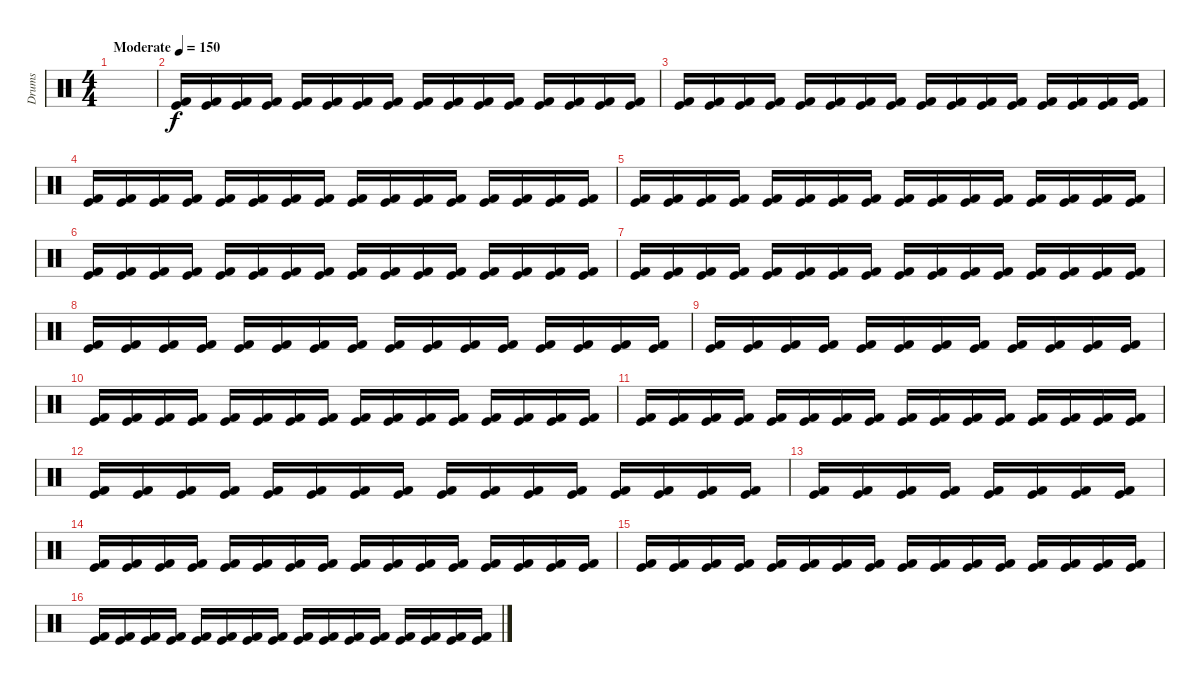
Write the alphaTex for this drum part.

\track ("Drums" "Drums") {instrument percussion}
\staff {score}
\articulation defaults
\ts (4 4)
\tempo (150 "Moderate")
\clef neutral
\ks c
|
("Kick (hit) 2" "Kick (hit)").16 ("Kick (hit) 2" "Kick (hit)").16 ("Kick (hit) 2" "Kick (hit)").16 ("Kick (hit) 2" "Kick (hit)").16 ("Kick (hit) 2" "Kick (hit)").16 ("Kick (hit) 2" "Kick (hit)").16 ("Kick (hit) 2" "Kick (hit)").16 ("Kick (hit) 2" "Kick (hit)").16 ("Kick (hit) 2" "Kick (hit)").16 ("Kick (hit) 2" "Kick (hit)").16 ("Kick (hit) 2" "Kick (hit)").16 ("Kick (hit) 2" "Kick (hit)").16 ("Kick (hit) 2" "Kick (hit)").16 ("Kick (hit) 2" "Kick (hit)").16 ("Kick (hit) 2" "Kick (hit)").16 ("Kick (hit) 2" "Kick (hit)").16 |
("Kick (hit) 2" "Kick (hit)").16 ("Kick (hit) 2" "Kick (hit)").16 ("Kick (hit) 2" "Kick (hit)").16 ("Kick (hit) 2" "Kick (hit)").16 ("Kick (hit) 2" "Kick (hit)").16 ("Kick (hit) 2" "Kick (hit)").16 ("Kick (hit) 2" "Kick (hit)").16 ("Kick (hit) 2" "Kick (hit)").16 ("Kick (hit) 2" "Kick (hit)").16 ("Kick (hit) 2" "Kick (hit)").16 ("Kick (hit) 2" "Kick (hit)").16 ("Kick (hit) 2" "Kick (hit)").16 ("Kick (hit) 2" "Kick (hit)").16 ("Kick (hit) 2" "Kick (hit)").16 ("Kick (hit) 2" "Kick (hit)").16 ("Kick (hit) 2" "Kick (hit)").16 |
("Kick (hit) 2" "Kick (hit)").16 ("Kick (hit) 2" "Kick (hit)").16 ("Kick (hit) 2" "Kick (hit)").16 ("Kick (hit) 2" "Kick (hit)").16 ("Kick (hit) 2" "Kick (hit)").16 ("Kick (hit) 2" "Kick (hit)").16 ("Kick (hit) 2" "Kick (hit)").16 ("Kick (hit) 2" "Kick (hit)").16 ("Kick (hit) 2" "Kick (hit)").16 ("Kick (hit) 2" "Kick (hit)").16 ("Kick (hit) 2" "Kick (hit)").16 ("Kick (hit) 2" "Kick (hit)").16 ("Kick (hit) 2" "Kick (hit)").16 ("Kick (hit) 2" "Kick (hit)").16 ("Kick (hit) 2" "Kick (hit)").16 ("Kick (hit) 2" "Kick (hit)").16 |
("Kick (hit) 2" "Kick (hit)").16 ("Kick (hit) 2" "Kick (hit)").16 ("Kick (hit) 2" "Kick (hit)").16 ("Kick (hit) 2" "Kick (hit)").16 ("Kick (hit) 2" "Kick (hit)").16 ("Kick (hit) 2" "Kick (hit)").16 ("Kick (hit) 2" "Kick (hit)").16 ("Kick (hit) 2" "Kick (hit)").16 ("Kick (hit) 2" "Kick (hit)").16 ("Kick (hit) 2" "Kick (hit)").16 ("Kick (hit) 2" "Kick (hit)").16 ("Kick (hit) 2" "Kick (hit)").16 ("Kick (hit) 2" "Kick (hit)").16 ("Kick (hit) 2" "Kick (hit)").16 ("Kick (hit) 2" "Kick (hit)").16 ("Kick (hit) 2" "Kick (hit)").16 |
("Kick (hit) 2" "Kick (hit)").16 ("Kick (hit) 2" "Kick (hit)").16 ("Kick (hit) 2" "Kick (hit)").16 ("Kick (hit) 2" "Kick (hit)").16 ("Kick (hit) 2" "Kick (hit)").16 ("Kick (hit) 2" "Kick (hit)").16 ("Kick (hit) 2" "Kick (hit)").16 ("Kick (hit) 2" "Kick (hit)").16 ("Kick (hit) 2" "Kick (hit)").16 ("Kick (hit) 2" "Kick (hit)").16 ("Kick (hit) 2" "Kick (hit)").16 ("Kick (hit) 2" "Kick (hit)").16 ("Kick (hit) 2" "Kick (hit)").16 ("Kick (hit) 2" "Kick (hit)").16 ("Kick (hit) 2" "Kick (hit)").16 ("Kick (hit) 2" "Kick (hit)").16 |
("Kick (hit) 2" "Kick (hit)").16 ("Kick (hit) 2" "Kick (hit)").16 ("Kick (hit) 2" "Kick (hit)").16 ("Kick (hit) 2" "Kick (hit)").16 ("Kick (hit) 2" "Kick (hit)").16 ("Kick (hit) 2" "Kick (hit)").16 ("Kick (hit) 2" "Kick (hit)").16 ("Kick (hit) 2" "Kick (hit)").16 ("Kick (hit) 2" "Kick (hit)").16 ("Kick (hit) 2" "Kick (hit)").16 ("Kick (hit) 2" "Kick (hit)").16 ("Kick (hit) 2" "Kick (hit)").16 ("Kick (hit) 2" "Kick (hit)").16 ("Kick (hit) 2" "Kick (hit)").16 ("Kick (hit) 2" "Kick (hit)").16 ("Kick (hit) 2" "Kick (hit)").16 |
("Kick (hit) 2" "Kick (hit)").16 ("Kick (hit) 2" "Kick (hit)").16 ("Kick (hit) 2" "Kick (hit)").16 ("Kick (hit) 2" "Kick (hit)").16 ("Kick (hit) 2" "Kick (hit)").16 ("Kick (hit) 2" "Kick (hit)").16 ("Kick (hit) 2" "Kick (hit)").16 ("Kick (hit) 2" "Kick (hit)").16 ("Kick (hit) 2" "Kick (hit)").16 ("Kick (hit) 2" "Kick (hit)").16 ("Kick (hit) 2" "Kick (hit)").16 ("Kick (hit) 2" "Kick (hit)").16 ("Kick (hit) 2" "Kick (hit)").16 ("Kick (hit) 2" "Kick (hit)").16 ("Kick (hit) 2" "Kick (hit)").16 ("Kick (hit) 2" "Kick (hit)").16 |
("Kick (hit) 2" "Kick (hit)").16 ("Kick (hit) 2" "Kick (hit)").16 ("Kick (hit) 2" "Kick (hit)").16 ("Kick (hit) 2" "Kick (hit)").16 ("Kick (hit) 2" "Kick (hit)").16 ("Kick (hit) 2" "Kick (hit)").16 ("Kick (hit) 2" "Kick (hit)").16 ("Kick (hit) 2" "Kick (hit)").16 ("Kick (hit) 2" "Kick (hit)").16 ("Kick (hit) 2" "Kick (hit)").16 ("Kick (hit) 2" "Kick (hit)").16 ("Kick (hit) 2" "Kick (hit)").16 |
("Kick (hit) 2" "Kick (hit)").16 ("Kick (hit) 2" "Kick (hit)").16 ("Kick (hit) 2" "Kick (hit)").16 ("Kick (hit) 2" "Kick (hit)").16 ("Kick (hit) 2" "Kick (hit)").16 ("Kick (hit) 2" "Kick (hit)").16 ("Kick (hit) 2" "Kick (hit)").16 ("Kick (hit) 2" "Kick (hit)").16 ("Kick (hit) 2" "Kick (hit)").16 ("Kick (hit) 2" "Kick (hit)").16 ("Kick (hit) 2" "Kick (hit)").16 ("Kick (hit) 2" "Kick (hit)").16 ("Kick (hit) 2" "Kick (hit)").16 ("Kick (hit) 2" "Kick (hit)").16 ("Kick (hit) 2" "Kick (hit)").16 ("Kick (hit) 2" "Kick (hit)").16 |
("Kick (hit) 2" "Kick (hit)").16 ("Kick (hit) 2" "Kick (hit)").16 ("Kick (hit) 2" "Kick (hit)").16 ("Kick (hit) 2" "Kick (hit)").16 ("Kick (hit) 2" "Kick (hit)").16 ("Kick (hit) 2" "Kick (hit)").16 ("Kick (hit) 2" "Kick (hit)").16 ("Kick (hit) 2" "Kick (hit)").16 ("Kick (hit) 2" "Kick (hit)").16 ("Kick (hit) 2" "Kick (hit)").16 ("Kick (hit) 2" "Kick (hit)").16 ("Kick (hit) 2" "Kick (hit)").16 ("Kick (hit) 2" "Kick (hit)").16 ("Kick (hit) 2" "Kick (hit)").16 ("Kick (hit) 2" "Kick (hit)").16 ("Kick (hit) 2" "Kick (hit)").16 |
("Kick (hit) 2" "Kick (hit)").16 ("Kick (hit) 2" "Kick (hit)").16 ("Kick (hit) 2" "Kick (hit)").16 ("Kick (hit) 2" "Kick (hit)").16 ("Kick (hit) 2" "Kick (hit)").16 ("Kick (hit) 2" "Kick (hit)").16 ("Kick (hit) 2" "Kick (hit)").16 ("Kick (hit) 2" "Kick (hit)").16 ("Kick (hit) 2" "Kick (hit)").16 ("Kick (hit) 2" "Kick (hit)").16 ("Kick (hit) 2" "Kick (hit)").16 ("Kick (hit) 2" "Kick (hit)").16 ("Kick (hit) 2" "Kick (hit)").16 ("Kick (hit) 2" "Kick (hit)").16 ("Kick (hit) 2" "Kick (hit)").16 ("Kick (hit) 2" "Kick (hit)").16 |
("Kick (hit) 2" "Kick (hit)").16 ("Kick (hit) 2" "Kick (hit)").16 ("Kick (hit) 2" "Kick (hit)").16 ("Kick (hit) 2" "Kick (hit)").16 ("Kick (hit) 2" "Kick (hit)").16 ("Kick (hit) 2" "Kick (hit)").16 ("Kick (hit) 2" "Kick (hit)").16 ("Kick (hit) 2" "Kick (hit)").16 |
("Kick (hit) 2" "Kick (hit)").16 ("Kick (hit) 2" "Kick (hit)").16 ("Kick (hit) 2" "Kick (hit)").16 ("Kick (hit) 2" "Kick (hit)").16 ("Kick (hit) 2" "Kick (hit)").16 ("Kick (hit) 2" "Kick (hit)").16 ("Kick (hit) 2" "Kick (hit)").16 ("Kick (hit) 2" "Kick (hit)").16 ("Kick (hit) 2" "Kick (hit)").16 ("Kick (hit) 2" "Kick (hit)").16 ("Kick (hit) 2" "Kick (hit)").16 ("Kick (hit) 2" "Kick (hit)").16 ("Kick (hit) 2" "Kick (hit)").16 ("Kick (hit) 2" "Kick (hit)").16 ("Kick (hit) 2" "Kick (hit)").16 ("Kick (hit) 2" "Kick (hit)").16 |
("Kick (hit) 2" "Kick (hit)").16 ("Kick (hit) 2" "Kick (hit)").16 ("Kick (hit) 2" "Kick (hit)").16 ("Kick (hit) 2" "Kick (hit)").16 ("Kick (hit) 2" "Kick (hit)").16 ("Kick (hit) 2" "Kick (hit)").16 ("Kick (hit) 2" "Kick (hit)").16 ("Kick (hit) 2" "Kick (hit)").16 ("Kick (hit) 2" "Kick (hit)").16 ("Kick (hit) 2" "Kick (hit)").16 ("Kick (hit) 2" "Kick (hit)").16 ("Kick (hit) 2" "Kick (hit)").16 ("Kick (hit) 2" "Kick (hit)").16 ("Kick (hit) 2" "Kick (hit)").16 ("Kick (hit) 2" "Kick (hit)").16 ("Kick (hit) 2" "Kick (hit)").16 |
("Kick (hit) 2" "Kick (hit)").16 ("Kick (hit) 2" "Kick (hit)").16 ("Kick (hit) 2" "Kick (hit)").16 ("Kick (hit) 2" "Kick (hit)").16 ("Kick (hit) 2" "Kick (hit)").16 ("Kick (hit) 2" "Kick (hit)").16 ("Kick (hit) 2" "Kick (hit)").16 ("Kick (hit) 2" "Kick (hit)").16 ("Kick (hit) 2" "Kick (hit)").16 ("Kick (hit) 2" "Kick (hit)").16 ("Kick (hit) 2" "Kick (hit)").16 ("Kick (hit) 2" "Kick (hit)").16 ("Kick (hit) 2" "Kick (hit)").16 ("Kick (hit) 2" "Kick (hit)").16 ("Kick (hit) 2" "Kick (hit)").16 ("Kick (hit) 2" "Kick (hit)").16
